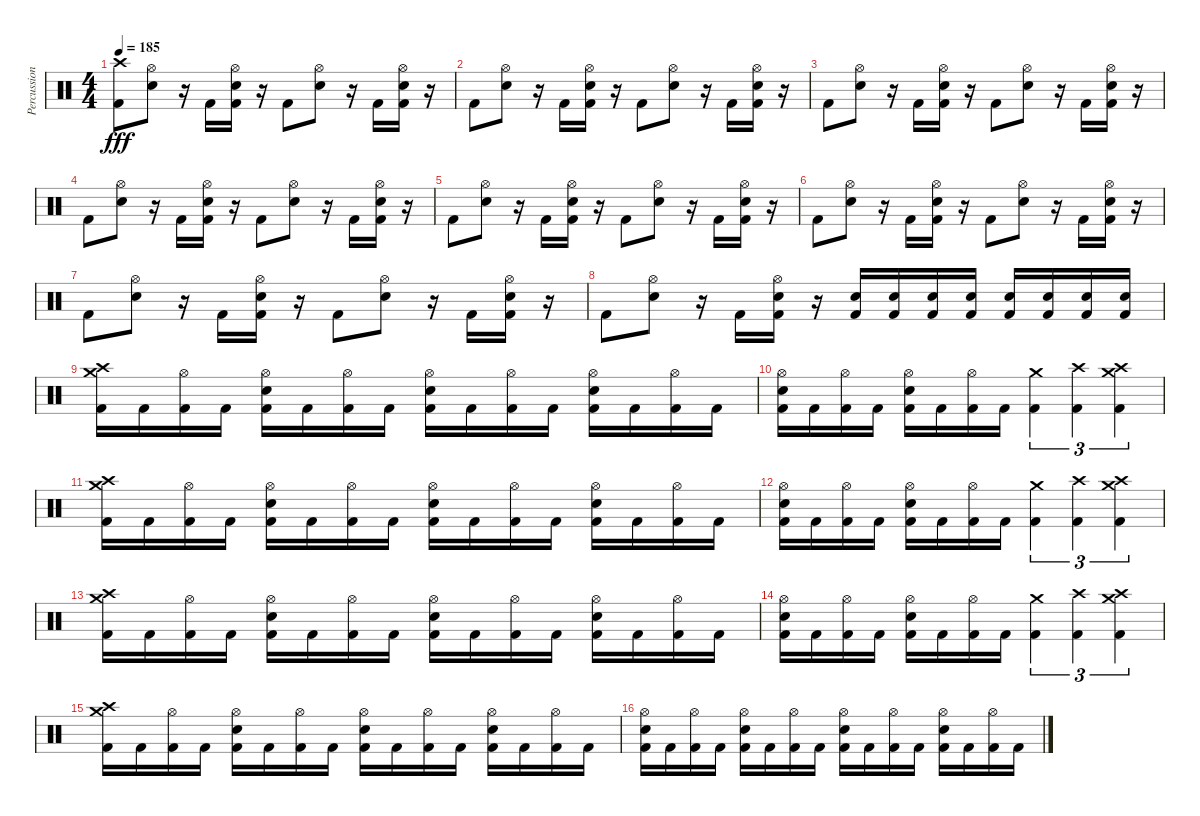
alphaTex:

\track ("Percussion" "Percussion") {instrument percussion}
\staff {score}
\articulation defaults
\ts (4 4)
\tempo 185
\clef neutral
\ks c
("Kick (hit) 2" "Crash high (hit)").8{dy fff} ("Electric Snare (hit)" "Hi-Hat (open)").8 r.16 "Kick (hit) 2".16 ("Kick (hit) 2" "Electric Snare (hit)" "Hi-Hat (open)").16 r.16 "Kick (hit) 2".8 ("Electric Snare (hit)" "Hi-Hat (open)").8 r.16 "Kick (hit) 2".16 ("Kick (hit) 2" "Electric Snare (hit)" "Hi-Hat (open)").16 r.16 |
"Kick (hit) 2".8 ("Electric Snare (hit)" "Hi-Hat (open)").8 r.16 "Kick (hit) 2".16 ("Kick (hit) 2" "Electric Snare (hit)" "Hi-Hat (open)").16 r.16 "Kick (hit) 2".8 ("Electric Snare (hit)" "Hi-Hat (open)").8 r.16 "Kick (hit) 2".16 ("Kick (hit) 2" "Electric Snare (hit)" "Hi-Hat (open)").16 r.16 |
"Kick (hit) 2".8 ("Electric Snare (hit)" "Hi-Hat (open)").8 r.16 "Kick (hit) 2".16 ("Kick (hit) 2" "Electric Snare (hit)" "Hi-Hat (open)").16 r.16 "Kick (hit) 2".8 ("Electric Snare (hit)" "Hi-Hat (open)").8 r.16 "Kick (hit) 2".16 ("Kick (hit) 2" "Electric Snare (hit)" "Hi-Hat (open)").16 r.16 |
"Kick (hit) 2".8 ("Electric Snare (hit)" "Hi-Hat (open)").8 r.16 "Kick (hit) 2".16 ("Kick (hit) 2" "Electric Snare (hit)" "Hi-Hat (open)").16 r.16 "Kick (hit) 2".8 ("Electric Snare (hit)" "Hi-Hat (open)").8 r.16 "Kick (hit) 2".16 ("Kick (hit) 2" "Electric Snare (hit)" "Hi-Hat (open)").16 r.16 |
"Kick (hit) 2".8 ("Electric Snare (hit)" "Hi-Hat (open)").8 r.16 "Kick (hit) 2".16 ("Kick (hit) 2" "Electric Snare (hit)" "Hi-Hat (open)").16 r.16 "Kick (hit) 2".8 ("Electric Snare (hit)" "Hi-Hat (open)").8 r.16 "Kick (hit) 2".16 ("Kick (hit) 2" "Electric Snare (hit)" "Hi-Hat (open)").16 r.16 |
"Kick (hit) 2".8 ("Electric Snare (hit)" "Hi-Hat (open)").8 r.16 "Kick (hit) 2".16 ("Kick (hit) 2" "Electric Snare (hit)" "Hi-Hat (open)").16 r.16 "Kick (hit) 2".8 ("Electric Snare (hit)" "Hi-Hat (open)").8 r.16 "Kick (hit) 2".16 ("Kick (hit) 2" "Electric Snare (hit)" "Hi-Hat (open)").16 r.16 |
"Kick (hit) 2".8 ("Electric Snare (hit)" "Hi-Hat (open)").8 r.16 "Kick (hit) 2".16 ("Kick (hit) 2" "Electric Snare (hit)" "Hi-Hat (open)").16 r.16 "Kick (hit) 2".8 ("Electric Snare (hit)" "Hi-Hat (open)").8 r.16 "Kick (hit) 2".16 ("Kick (hit) 2" "Electric Snare (hit)" "Hi-Hat (open)").16 r.16 |
"Kick (hit) 2".8 ("Electric Snare (hit)" "Hi-Hat (open)").8 r.16 "Kick (hit) 2".16 ("Kick (hit) 2" "Electric Snare (hit)" "Hi-Hat (open)").16 r.16 ("Kick (hit) 2" "Electric Snare (hit)").16 ("Kick (hit) 2" "Electric Snare (hit)").16 ("Kick (hit) 2" "Electric Snare (hit)").16 ("Kick (hit) 2" "Electric Snare (hit)").16 ("Kick (hit) 2" "Electric Snare (hit)").16 ("Kick (hit) 2" "Electric Snare (hit)").16 ("Kick (hit) 2" "Electric Snare (hit)").16 ("Kick (hit) 2" "Electric Snare (hit)").16 |
("Kick (hit) 2" "Crash medium (hit)" "Crash high (hit)").16 "Kick (hit) 2".16 ("Kick (hit) 2" "Hi-Hat (open)").16 "Kick (hit) 2".16 ("Kick (hit) 2" "Electric Snare (hit)" "Hi-Hat (open)").16 "Kick (hit) 2".16 ("Kick (hit) 2" "Hi-Hat (open)").16 "Kick (hit) 2".16 ("Kick (hit) 2" "Electric Snare (hit)" "Hi-Hat (open)").16 "Kick (hit) 2".16 ("Kick (hit) 2" "Hi-Hat (open)").16 "Kick (hit) 2".16 ("Kick (hit) 2" "Electric Snare (hit)" "Hi-Hat (open)").16 "Kick (hit) 2".16 ("Kick (hit) 2" "Hi-Hat (open)").16 "Kick (hit) 2".16 |
("Kick (hit) 2" "Electric Snare (hit)" "Hi-Hat (open)").16 "Kick (hit) 2".16 ("Kick (hit) 2" "Hi-Hat (open)").16 "Kick (hit) 2".16 ("Kick (hit) 2" "Electric Snare (hit)" "Hi-Hat (open)").16 "Kick (hit) 2".16 ("Kick (hit) 2" "Hi-Hat (open)").16 "Kick (hit) 2".16 ("Kick (hit) 2" "Crash medium (hit)").4{tu (3 2)} ("Kick (hit) 2" "Crash high (hit)").4{tu (3 2)} ("Kick (hit) 2" "Crash medium (hit)" "Crash high (hit)").4{tu (3 2)} |
("Kick (hit) 2" "Crash medium (hit)" "Crash high (hit)").16 "Kick (hit) 2".16 ("Kick (hit) 2" "Hi-Hat (open)").16 "Kick (hit) 2".16 ("Kick (hit) 2" "Electric Snare (hit)" "Hi-Hat (open)").16 "Kick (hit) 2".16 ("Kick (hit) 2" "Hi-Hat (open)").16 "Kick (hit) 2".16 ("Kick (hit) 2" "Electric Snare (hit)" "Hi-Hat (open)").16 "Kick (hit) 2".16 ("Kick (hit) 2" "Hi-Hat (open)").16 "Kick (hit) 2".16 ("Kick (hit) 2" "Electric Snare (hit)" "Hi-Hat (open)").16 "Kick (hit) 2".16 ("Kick (hit) 2" "Hi-Hat (open)").16 "Kick (hit) 2".16 |
("Kick (hit) 2" "Electric Snare (hit)" "Hi-Hat (open)").16 "Kick (hit) 2".16 ("Kick (hit) 2" "Hi-Hat (open)").16 "Kick (hit) 2".16 ("Kick (hit) 2" "Electric Snare (hit)" "Hi-Hat (open)").16 "Kick (hit) 2".16 ("Kick (hit) 2" "Hi-Hat (open)").16 "Kick (hit) 2".16 ("Kick (hit) 2" "Crash medium (hit)").4{tu (3 2)} ("Kick (hit) 2" "Crash high (hit)").4{tu (3 2)} ("Kick (hit) 2" "Crash medium (hit)" "Crash high (hit)").4{tu (3 2)} |
("Kick (hit) 2" "Crash medium (hit)" "Crash high (hit)").16 "Kick (hit) 2".16 ("Kick (hit) 2" "Hi-Hat (open)").16 "Kick (hit) 2".16 ("Kick (hit) 2" "Electric Snare (hit)" "Hi-Hat (open)").16 "Kick (hit) 2".16 ("Kick (hit) 2" "Hi-Hat (open)").16 "Kick (hit) 2".16 ("Kick (hit) 2" "Electric Snare (hit)" "Hi-Hat (open)").16 "Kick (hit) 2".16 ("Kick (hit) 2" "Hi-Hat (open)").16 "Kick (hit) 2".16 ("Kick (hit) 2" "Electric Snare (hit)" "Hi-Hat (open)").16 "Kick (hit) 2".16 ("Kick (hit) 2" "Hi-Hat (open)").16 "Kick (hit) 2".16 |
("Kick (hit) 2" "Electric Snare (hit)" "Hi-Hat (open)").16 "Kick (hit) 2".16 ("Kick (hit) 2" "Hi-Hat (open)").16 "Kick (hit) 2".16 ("Kick (hit) 2" "Electric Snare (hit)" "Hi-Hat (open)").16 "Kick (hit) 2".16 ("Kick (hit) 2" "Hi-Hat (open)").16 "Kick (hit) 2".16 ("Kick (hit) 2" "Crash medium (hit)").4{tu (3 2)} ("Kick (hit) 2" "Crash high (hit)").4{tu (3 2)} ("Kick (hit) 2" "Crash medium (hit)" "Crash high (hit)").4{tu (3 2)} |
("Kick (hit) 2" "Crash medium (hit)" "Crash high (hit)").16 "Kick (hit) 2".16 ("Kick (hit) 2" "Hi-Hat (open)").16 "Kick (hit) 2".16 ("Kick (hit) 2" "Electric Snare (hit)" "Hi-Hat (open)").16 "Kick (hit) 2".16 ("Kick (hit) 2" "Hi-Hat (open)").16 "Kick (hit) 2".16 ("Kick (hit) 2" "Electric Snare (hit)" "Hi-Hat (open)").16 "Kick (hit) 2".16 ("Kick (hit) 2" "Hi-Hat (open)").16 "Kick (hit) 2".16 ("Kick (hit) 2" "Electric Snare (hit)" "Hi-Hat (open)").16 "Kick (hit) 2".16 ("Kick (hit) 2" "Hi-Hat (open)").16 "Kick (hit) 2".16 |
("Kick (hit) 2" "Electric Snare (hit)" "Hi-Hat (open)").16 "Kick (hit) 2".16 ("Kick (hit) 2" "Hi-Hat (open)").16 "Kick (hit) 2".16 ("Kick (hit) 2" "Electric Snare (hit)" "Hi-Hat (open)").16 "Kick (hit) 2".16 ("Kick (hit) 2" "Hi-Hat (open)").16 "Kick (hit) 2".16 ("Kick (hit) 2" "Electric Snare (hit)" "Hi-Hat (open)").16 "Kick (hit) 2".16 ("Kick (hit) 2" "Hi-Hat (open)").16 "Kick (hit) 2".16 ("Kick (hit) 2" "Electric Snare (hit)" "Hi-Hat (open)").16 "Kick (hit) 2".16 ("Kick (hit) 2" "Hi-Hat (open)").16 "Kick (hit) 2".16
